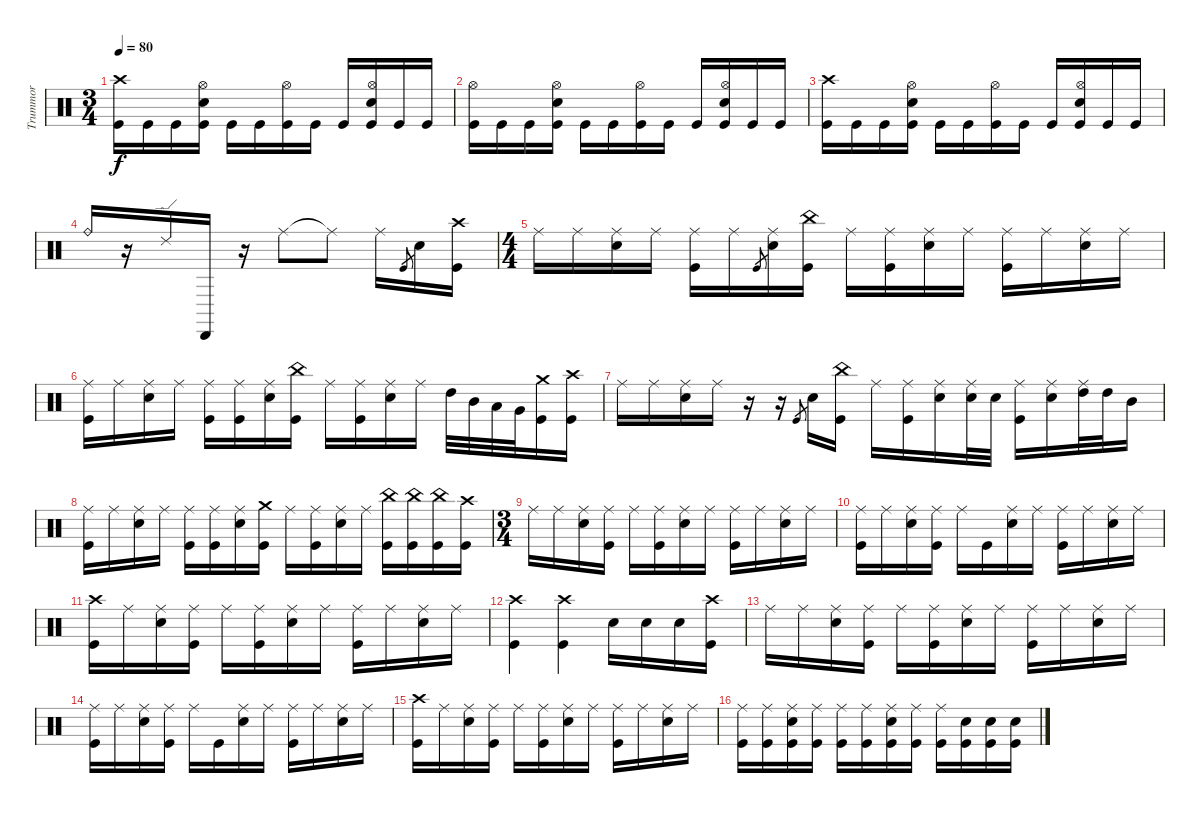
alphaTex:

\track ("Trummor" "Trummor") {instrument percussion}
\staff {score}
\articulation defaults
\ts (3 4)
\tempo 80
\clef neutral
\ks c
("Crash high (hit)" "Kick (hit)").16{dy f} "Kick (hit)".16 "Kick (hit)".16 ("Hi-Hat (open)" "Electric Snare (hit)" "Kick (hit)").16 "Kick (hit)".16 "Kick (hit)".16 ("Hi-Hat (open)" "Kick (hit)").16 "Kick (hit)".16 "Kick (hit)".16 ("Hi-Hat (open)" "Electric Snare (hit)" "Kick (hit)").16 "Kick (hit)".16 "Kick (hit)".16 |
("Hi-Hat (open)" "Kick (hit)").16 "Kick (hit)".16 "Kick (hit)".16 ("Hi-Hat (open)" "Electric Snare (hit)" "Kick (hit)").16 "Kick (hit)".16 "Kick (hit)".16 ("Hi-Hat (open)" "Kick (hit)").16 "Kick (hit)".16 "Kick (hit)".16 ("Hi-Hat (open)" "Electric Snare (hit)" "Kick (hit)").16 "Kick (hit)".16 "Kick (hit)".16 |
("Crash high (hit)" "Kick (hit)").16 "Kick (hit)".16 "Kick (hit)".16 ("Hi-Hat (open)" "Electric Snare (hit)" "Kick (hit)").16 "Kick (hit)".16 "Kick (hit)".16 ("Hi-Hat (open)" "Kick (hit)").16 "Kick (hit)".16 "Kick (hit)".16 ("Hi-Hat (open)" "Electric Snare (hit)" "Kick (hit)").16 "Kick (hit)".16 "Kick (hit)".16 |
"Ride (bell)".16 r.16 "Ride (edge) 2".16 "Cabasa (hit)".16 r.16 "Ride (middle)".8 "Ride (middle)"{t}.8 "Ride (middle)".16 "Kick (hit)"{sl}.8{gr} "Electric Snare (hit)".16 ("Crash high (hit)" "Kick (hit)").16 |
\ts (4 4)
"Ride (middle)".16 "Ride (middle)".16 ("Ride (middle)" "Electric Snare (hit)").16 "Ride (middle)".16 ("Ride (middle)" "Kick (hit)").16 "Ride (middle)".16 "Kick (hit)"{sl}.8{gr} ("Ride (middle)" "Electric Snare (hit)").16 ("China (hit)" "Kick (hit)").16 "Ride (middle)".16 ("Ride (middle)" "Kick (hit)").16 ("Ride (middle)" "Electric Snare (hit)").16 "Ride (middle)".16 ("Ride (middle)" "Kick (hit)").16 "Ride (middle)".16 ("Ride (middle)" "Electric Snare (hit)").16 "Ride (middle)".16 |
("Ride (middle)" "Kick (hit)").16 "Ride (middle)".16 ("Ride (middle)" "Electric Snare (hit)").16 "Ride (middle)".16 ("Ride (middle)" "Kick (hit)").16 ("Ride (middle)" "Kick (hit)").16 ("Ride (middle)" "Electric Snare (hit)").16 ("China (hit)" "Kick (hit)").16 "Ride (middle)".16 ("Ride (middle)" "Kick (hit)").16 ("Ride (middle)" "Electric Snare (hit)").16 "Ride (middle)".16 "High Tom (hit)".32 "Mid Tom (hit)".32 "Low Tom (hit)".32 "Very Low Tom (hit)".32 ("Crash medium (hit)" "Kick (hit)").16 ("Crash high (hit)" "Kick (hit)").16 |
"Ride (middle)".16 "Ride (middle)".16 ("Ride (middle)" "Electric Snare (hit)").16 "Ride (middle)".16 r.16 r.16 "Kick (hit)"{sl}.8{gr} "Electric Snare (hit)".16 ("China (hit)" "Kick (hit)").16 "Ride (middle)".16 ("Ride (middle)" "Kick (hit)").16 ("Ride (middle)" "Electric Snare (hit)").16 ("Ride (middle)" "Electric Snare (hit)").32 "Electric Snare (hit)".32 ("Ride (middle)" "Kick (hit)").16 ("Ride (middle)" "Electric Snare (hit)").16 ("Ride (middle)" "High Tom (hit)").32 "High Tom (hit)".32 "Mid Tom (hit)".16 |
("Ride (middle)" "Kick (hit)").16 "Ride (middle)".16 ("Ride (middle)" "Electric Snare (hit)").16 "Ride (middle)".16 ("Ride (middle)" "Kick (hit)").16 ("Ride (middle)" "Kick (hit)").16 ("Ride (middle)" "Electric Snare (hit)").16 ("Crash medium (hit)" "Kick (hit)").16 "Ride (middle)".16 ("Ride (middle)" "Kick (hit)").16 ("Ride (middle)" "Electric Snare (hit)").16 "Ride (middle)".16 ("China (hit)" "Kick (hit)").16 ("China (hit)" "Kick (hit)").16 ("China (hit)" "Kick (hit)").16 ("Crash high (hit)" "Kick (hit)").16 |
\ts (3 4)
"Ride (middle)".16 "Ride (middle)".16 ("Ride (middle)" "Electric Snare (hit)").16 ("Ride (middle)" "Kick (hit)").16 "Ride (middle)".16 ("Ride (middle)" "Kick (hit)").16 ("Ride (middle)" "Electric Snare (hit)").16 "Ride (middle)".16 ("Ride (middle)" "Kick (hit)").16 "Ride (middle)".16 ("Ride (middle)" "Electric Snare (hit)").16 "Ride (middle)".16 |
("Ride (middle)" "Kick (hit)").16 "Ride (middle)".16 ("Ride (middle)" "Electric Snare (hit)").16 ("Ride (middle)" "Kick (hit)").16 "Ride (middle)".16 "Kick (hit)".16 ("Ride (middle)" "Electric Snare (hit)").16 "Ride (middle)".16 ("Ride (middle)" "Kick (hit)").16 "Ride (middle)".16 ("Ride (middle)" "Electric Snare (hit)").16 "Ride (middle)".16 |
("Crash high (hit)" "Kick (hit)").16 "Ride (middle)".16 ("Ride (middle)" "Electric Snare (hit)").16 ("Ride (middle)" "Kick (hit)").16 "Ride (middle)".16 ("Ride (middle)" "Kick (hit)").16 ("Ride (middle)" "Electric Snare (hit)").16 "Ride (middle)".16 ("Ride (middle)" "Kick (hit)").16 "Ride (middle)".16 ("Ride (middle)" "Electric Snare (hit)").16 "Ride (middle)".16 |
("Crash high (hit)" "Kick (hit)").4 ("Crash high (hit)" "Kick (hit)").4 "Electric Snare (hit)".16 "Electric Snare (hit)".16 "Electric Snare (hit)".16 ("Crash high (hit)" "Kick (hit)").16 |
"Ride (middle)".16 "Ride (middle)".16 ("Ride (middle)" "Electric Snare (hit)").16 ("Ride (middle)" "Kick (hit)").16 "Ride (middle)".16 ("Ride (middle)" "Kick (hit)").16 ("Ride (middle)" "Electric Snare (hit)").16 "Ride (middle)".16 ("Ride (middle)" "Kick (hit)").16 "Ride (middle)".16 ("Ride (middle)" "Electric Snare (hit)").16 "Ride (middle)".16 |
("Ride (middle)" "Kick (hit)").16 "Ride (middle)".16 ("Ride (middle)" "Electric Snare (hit)").16 ("Ride (middle)" "Kick (hit)").16 "Ride (middle)".16 "Kick (hit)".16 ("Ride (middle)" "Electric Snare (hit)").16 "Ride (middle)".16 ("Ride (middle)" "Kick (hit)").16 "Ride (middle)".16 ("Ride (middle)" "Electric Snare (hit)").16 "Ride (middle)".16 |
("Crash high (hit)" "Kick (hit)").16 "Ride (middle)".16 ("Ride (middle)" "Electric Snare (hit)").16 ("Ride (middle)" "Kick (hit)").16 "Ride (middle)".16 ("Ride (middle)" "Kick (hit)").16 ("Ride (middle)" "Electric Snare (hit)").16 "Ride (middle)".16 ("Ride (middle)" "Kick (hit)").16 "Ride (middle)".16 ("Ride (middle)" "Electric Snare (hit)").16 "Ride (middle)".16 |
("Ride (middle)" "Kick (hit)").16 ("Ride (middle)" "Kick (hit)").16 ("Ride (middle)" "Electric Snare (hit)" "Kick (hit)").16 ("Ride (middle)" "Kick (hit)").16 ("Ride (middle)" "Kick (hit)").16 ("Ride (middle)" "Kick (hit)").16 ("Ride (middle)" "Electric Snare (hit)" "Kick (hit)").16 ("Ride (middle)" "Kick (hit)").16 ("Ride (middle)" "Kick (hit)").16 ("Electric Snare (hit)" "Kick (hit)").16 ("Electric Snare (hit)" "Kick (hit)").16 ("Electric Snare (hit)" "Kick (hit)").16
